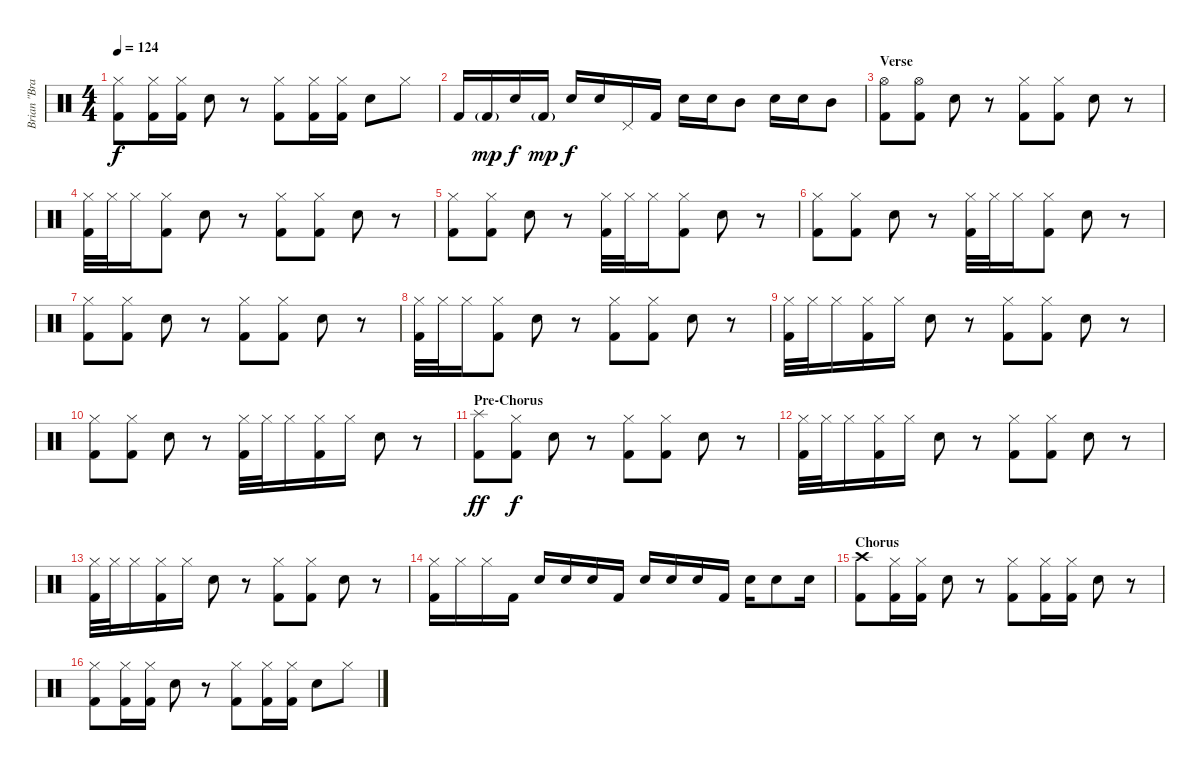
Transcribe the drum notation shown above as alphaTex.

\track ("Brian \"Brain\" Mantia / Drums" "Brian \"Bra") {instrument percussion}
\staff {score}
\articulation defaults
\ts (4 4)
\tempo 124
\clef neutral
\ks c
("Hi-Hat (closed)" "Kick (hit) 2").8{dy f} ("Hi-Hat (closed)" "Kick (hit) 2").16 ("Hi-Hat (closed)" "Kick (hit) 2").16 "Electric Snare (hit)".8 r.8 ("Hi-Hat (closed)" "Kick (hit) 2").8 ("Hi-Hat (closed)" "Kick (hit) 2").16 ("Hi-Hat (closed)" "Kick (hit) 2").16 "Electric Snare (hit)".8 "Hi-Hat (closed)".8 |
"Kick (hit) 2".16 "Kick (hit) 2"{g}.16{dy mp} "Electric Snare (hit)".16{dy f} "Kick (hit) 2"{g}.16{dy mp} "Electric Snare (hit)".16{dy f} "Electric Snare (hit)".16 "Pedal Hi-Hat (hit)".16 "Kick (hit) 2".16 "Electric Snare (hit)".16 "Electric Snare (hit)".16 "Mid Tom (hit)".8 "Electric Snare (hit)".16 "Electric Snare (hit)".16 "Mid Tom (hit)".8 |
\section ("" "Verse")
("Hi-Hat (open)" "Kick (hit) 2").8 ("Hi-Hat (open)" "Kick (hit) 2").8 "Electric Snare (hit)".8 r.8 ("Hi-Hat (closed)" "Kick (hit) 2").8 ("Hi-Hat (closed)" "Kick (hit) 2").8 "Electric Snare (hit)".8 r.8 |
("Hi-Hat (closed)" "Kick (hit) 2").32 "Hi-Hat (closed)".32 "Hi-Hat (closed)".16 ("Hi-Hat (closed)" "Kick (hit) 2").8 "Electric Snare (hit)".8 r.8 ("Hi-Hat (closed)" "Kick (hit) 2").8 ("Hi-Hat (closed)" "Kick (hit) 2").8 "Electric Snare (hit)".8 r.8 |
("Hi-Hat (closed)" "Kick (hit) 2").8 ("Hi-Hat (closed)" "Kick (hit) 2").8 "Electric Snare (hit)".8 r.8 ("Hi-Hat (closed)" "Kick (hit) 2").32 "Hi-Hat (closed)".32 "Hi-Hat (closed)".16 ("Hi-Hat (closed)" "Kick (hit) 2").8 "Electric Snare (hit)".8 r.8 |
("Hi-Hat (closed)" "Kick (hit) 2").8 ("Hi-Hat (closed)" "Kick (hit) 2").8 "Electric Snare (hit)".8 r.8 ("Hi-Hat (closed)" "Kick (hit) 2").32 "Hi-Hat (closed)".32 "Hi-Hat (closed)".16 ("Hi-Hat (closed)" "Kick (hit) 2").8 "Electric Snare (hit)".8 r.8 |
("Hi-Hat (closed)" "Kick (hit) 2").8 ("Hi-Hat (closed)" "Kick (hit) 2").8 "Electric Snare (hit)".8 r.8 ("Hi-Hat (closed)" "Kick (hit) 2").8 ("Hi-Hat (closed)" "Kick (hit) 2").8 "Electric Snare (hit)".8 r.8 |
("Hi-Hat (closed)" "Kick (hit) 2").32 "Hi-Hat (closed)".32 "Hi-Hat (closed)".16 ("Hi-Hat (closed)" "Kick (hit) 2").8 "Electric Snare (hit)".8 r.8 ("Hi-Hat (closed)" "Kick (hit) 2").8 ("Hi-Hat (closed)" "Kick (hit) 2").8 "Electric Snare (hit)".8 r.8 |
("Hi-Hat (closed)" "Kick (hit) 2").32 "Hi-Hat (closed)".32 "Hi-Hat (closed)".16 ("Hi-Hat (closed)" "Kick (hit) 2").16 "Hi-Hat (closed)".16 "Electric Snare (hit)".8 r.8 ("Hi-Hat (closed)" "Kick (hit) 2").8 ("Hi-Hat (closed)" "Kick (hit) 2").8 "Electric Snare (hit)".8 r.8 |
("Hi-Hat (closed)" "Kick (hit) 2").8 ("Hi-Hat (closed)" "Kick (hit) 2").8 "Electric Snare (hit)".8 r.8 ("Hi-Hat (closed)" "Kick (hit) 2").32 "Hi-Hat (closed)".32 "Hi-Hat (closed)".16 ("Hi-Hat (closed)" "Kick (hit) 2").16 "Hi-Hat (closed)".16 "Electric Snare (hit)".8 r.8 |
\section ("" "Pre-Chorus")
("Splash (hit)" "Kick (hit) 2").8{dy ff} ("Hi-Hat (closed)" "Kick (hit) 2").8{dy f} "Electric Snare (hit)".8 r.8 ("Hi-Hat (closed)" "Kick (hit) 2").8 ("Hi-Hat (closed)" "Kick (hit) 2").8 "Electric Snare (hit)".8 r.8 |
("Hi-Hat (closed)" "Kick (hit) 2").32 "Hi-Hat (closed)".32 "Hi-Hat (closed)".16 ("Hi-Hat (closed)" "Kick (hit) 2").16 "Hi-Hat (closed)".16 "Electric Snare (hit)".8 r.8 ("Hi-Hat (closed)" "Kick (hit) 2").8 ("Hi-Hat (closed)" "Kick (hit) 2").8 "Electric Snare (hit)".8 r.8 |
("Hi-Hat (closed)" "Kick (hit) 2").32 "Hi-Hat (closed)".32 "Hi-Hat (closed)".16 ("Hi-Hat (closed)" "Kick (hit) 2").16 "Hi-Hat (closed)".16 "Electric Snare (hit)".8 r.8 ("Hi-Hat (closed)" "Kick (hit) 2").8 ("Hi-Hat (closed)" "Kick (hit) 2").8 "Electric Snare (hit)".8 r.8 |
("Hi-Hat (closed)" "Kick (hit) 2").16 "Hi-Hat (closed)".16 "Hi-Hat (closed)".16 "Kick (hit) 2".16 "Electric Snare (hit)".16 "Electric Snare (hit)".16 "Electric Snare (hit)".16 "Kick (hit) 2".16 "Electric Snare (hit)".16 "Electric Snare (hit)".16 "Electric Snare (hit)".16 "Kick (hit) 2".16 "Electric Snare (hit)".16 "Electric Snare (hit)".8 "Electric Snare (hit)".16 |
\section ("" "Chorus")
("Crash high (hit)" "Kick (hit) 2").8 ("Hi-Hat (closed)" "Kick (hit) 2").16 ("Hi-Hat (closed)" "Kick (hit) 2").16 "Electric Snare (hit)".8 r.8 ("Hi-Hat (closed)" "Kick (hit) 2").8 ("Hi-Hat (closed)" "Kick (hit) 2").16 ("Hi-Hat (closed)" "Kick (hit) 2").16 "Electric Snare (hit)".8 r.8 |
("Hi-Hat (closed)" "Kick (hit) 2").8 ("Hi-Hat (closed)" "Kick (hit) 2").16 ("Hi-Hat (closed)" "Kick (hit) 2").16 "Electric Snare (hit)".8 r.8 ("Hi-Hat (closed)" "Kick (hit) 2").8 ("Hi-Hat (closed)" "Kick (hit) 2").16 ("Hi-Hat (closed)" "Kick (hit) 2").16 "Electric Snare (hit)".8 "Hi-Hat (closed)".8
